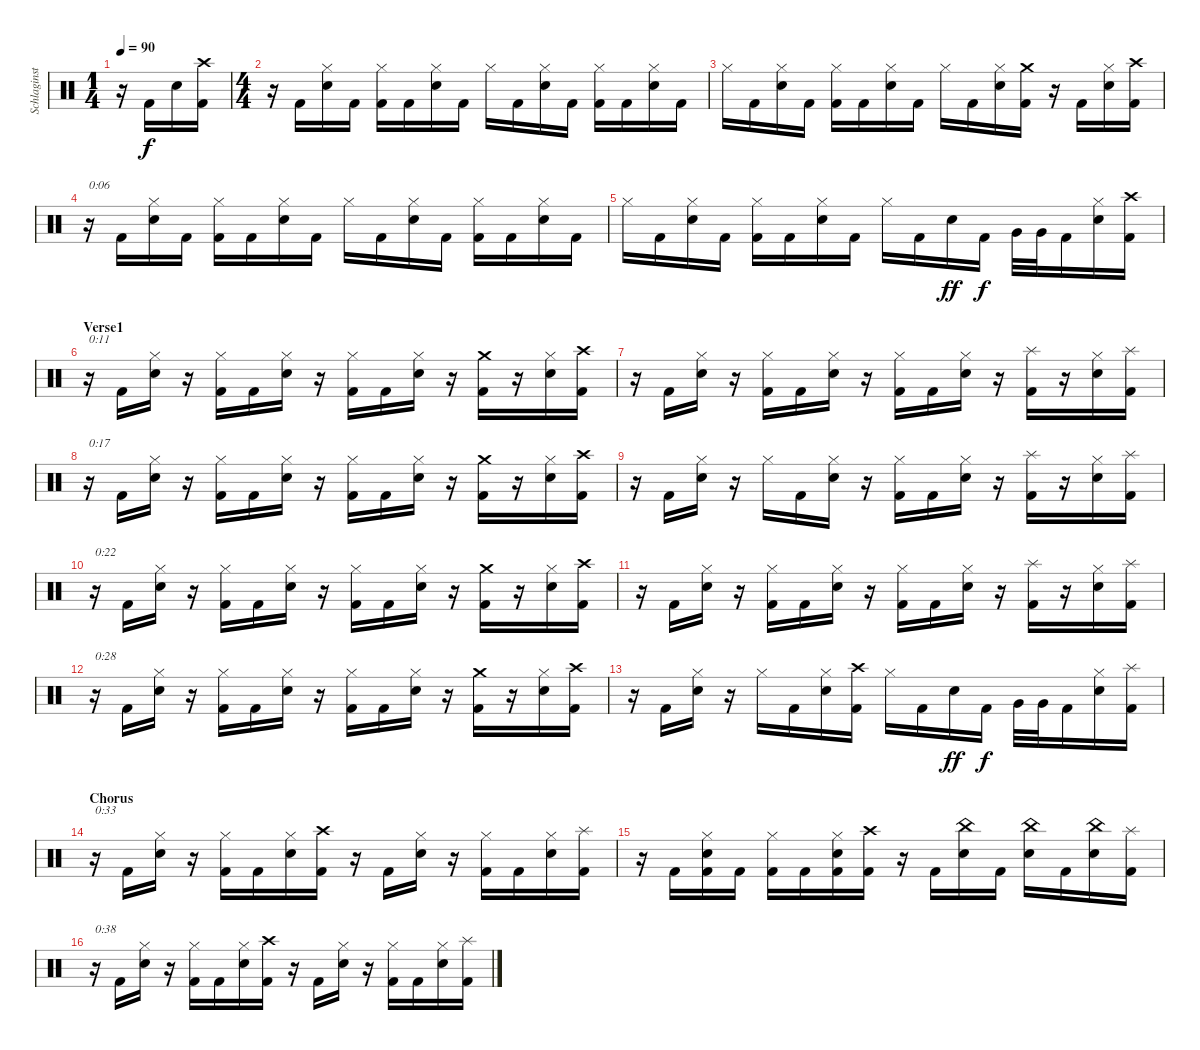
\track ("Schlaginstrumente - Auswahl" "Schlaginst") {instrument percussion}
\staff {score}
\articulation defaults
\ts (1 4)
\tempo 90
\clef neutral
\ks c
r.16{dy f} "Kick (hit) 2".16 "Electric Snare (hit)".16 ("Crash high (hit)" "Kick (hit) 2").16 |
\ts (4 4)
r.16 "Kick (hit) 2".16 ("Hi-Hat (closed)" "Electric Snare (hit)").16 "Kick (hit) 2".16 ("Hi-Hat (closed)" "Kick (hit) 2").16 "Kick (hit) 2".16 ("Hi-Hat (closed)" "Electric Snare (hit)").16 "Kick (hit) 2".16 "Hi-Hat (closed)".16 "Kick (hit) 2".16 ("Hi-Hat (closed)" "Electric Snare (hit)").16 "Kick (hit) 2".16 ("Hi-Hat (closed)" "Kick (hit) 2").16 "Kick (hit) 2".16 ("Hi-Hat (closed)" "Electric Snare (hit)").16 "Kick (hit) 2".16 |
"Hi-Hat (closed)".16 "Kick (hit) 2".16 ("Hi-Hat (closed)" "Electric Snare (hit)").16 "Kick (hit) 2".16 ("Hi-Hat (closed)" "Kick (hit) 2").16 "Kick (hit) 2".16 ("Hi-Hat (closed)" "Electric Snare (hit)").16 "Kick (hit) 2".16 "Hi-Hat (closed)".16 "Kick (hit) 2".16 ("Hi-Hat (closed)" "Electric Snare (hit)").16 ("Crash medium (hit)" "Kick (hit) 2").16 r.16 "Kick (hit) 2".16 ("Hi-Hat (closed)" "Electric Snare (hit)").16 ("Crash high (hit)" "Kick (hit) 2").16 |
r.16{txt "0:06"} "Kick (hit) 2".16 ("Hi-Hat (closed)" "Electric Snare (hit)").16 "Kick (hit) 2".16 ("Hi-Hat (closed)" "Kick (hit) 2").16 "Kick (hit) 2".16 ("Hi-Hat (closed)" "Electric Snare (hit)").16 "Kick (hit) 2".16 "Hi-Hat (closed)".16 "Kick (hit) 2".16 ("Hi-Hat (closed)" "Electric Snare (hit)").16 "Kick (hit) 2".16 ("Hi-Hat (closed)" "Kick (hit) 2").16 "Kick (hit) 2".16 ("Hi-Hat (closed)" "Electric Snare (hit)").16 "Kick (hit) 2".16 |
"Hi-Hat (closed)".16 "Kick (hit) 2".16 ("Hi-Hat (closed)" "Electric Snare (hit)").16 "Kick (hit) 2".16 ("Hi-Hat (closed)" "Kick (hit) 2").16 "Kick (hit) 2".16 ("Hi-Hat (closed)" "Electric Snare (hit)").16 "Kick (hit) 2".16 "Hi-Hat (closed)".16 "Kick (hit) 2".16 "Electric Snare (hit)".16{dy ff} "Kick (hit) 2".16{dy f} "Very Low Tom (hit)".32 "Very Low Tom (hit)".32 "Kick (hit) 2".16 ("Hi-Hat (closed)" "Electric Snare (hit)").16 ("Crash high (hit)" "Kick (hit) 2").16 |
\section ("" "Verse1")
r.16{txt "0:11"} "Kick (hit) 2".16 ("Hi-Hat (closed)" "Electric Snare (hit)").16 r.16 ("Hi-Hat (closed)" "Kick (hit) 2").16 "Kick (hit) 2".16 ("Hi-Hat (closed)" "Electric Snare (hit)").16 r.16 ("Hi-Hat (closed)" "Kick (hit) 2").16 "Kick (hit) 2".16 ("Hi-Hat (closed)" "Electric Snare (hit)").16 r.16 ("Crash medium (hit)" "Kick (hit) 2").16 r.16 ("Hi-Hat (closed)" "Electric Snare (hit)").16 ("Crash high (hit)" "Kick (hit) 2").16 |
r.16 "Kick (hit) 2".16 ("Hi-Hat (closed)" "Electric Snare (hit)").16 r.16 ("Hi-Hat (closed)" "Kick (hit) 2").16 "Kick (hit) 2".16 ("Hi-Hat (closed)" "Electric Snare (hit)").16 r.16 ("Hi-Hat (closed)" "Kick (hit) 2").16 "Kick (hit) 2".16 ("Hi-Hat (closed)" "Electric Snare (hit)").16 r.16 ("Splash (hit)" "Kick (hit) 2").16 r.16 ("Hi-Hat (closed)" "Electric Snare (hit)").16 ("Splash (hit)" "Kick (hit) 2").16 |
r.16{txt "0:17"} "Kick (hit) 2".16 ("Hi-Hat (closed)" "Electric Snare (hit)").16 r.16 ("Hi-Hat (closed)" "Kick (hit) 2").16 "Kick (hit) 2".16 ("Hi-Hat (closed)" "Electric Snare (hit)").16 r.16 ("Hi-Hat (closed)" "Kick (hit) 2").16 "Kick (hit) 2".16 ("Hi-Hat (closed)" "Electric Snare (hit)").16 r.16 ("Crash medium (hit)" "Kick (hit) 2").16 r.16 ("Hi-Hat (closed)" "Electric Snare (hit)").16 ("Crash high (hit)" "Kick (hit) 2").16 |
r.16 "Kick (hit) 2".16 ("Hi-Hat (closed)" "Electric Snare (hit)").16 r.16 "Hi-Hat (closed)".16 "Kick (hit) 2".16 ("Hi-Hat (closed)" "Electric Snare (hit)").16 r.16 ("Hi-Hat (closed)" "Kick (hit) 2").16 "Kick (hit) 2".16 ("Hi-Hat (closed)" "Electric Snare (hit)").16 r.16 ("Splash (hit)" "Kick (hit) 2").16 r.16 ("Hi-Hat (closed)" "Electric Snare (hit)").16 ("Splash (hit)" "Kick (hit) 2").16 |
r.16{txt "0:22"} "Kick (hit) 2".16 ("Hi-Hat (closed)" "Electric Snare (hit)").16 r.16 ("Hi-Hat (closed)" "Kick (hit) 2").16 "Kick (hit) 2".16 ("Hi-Hat (closed)" "Electric Snare (hit)").16 r.16 ("Hi-Hat (closed)" "Kick (hit) 2").16 "Kick (hit) 2".16 ("Hi-Hat (closed)" "Electric Snare (hit)").16 r.16 ("Crash medium (hit)" "Kick (hit) 2").16 r.16 ("Hi-Hat (closed)" "Electric Snare (hit)").16 ("Crash high (hit)" "Kick (hit) 2").16 |
r.16 "Kick (hit) 2".16 ("Hi-Hat (closed)" "Electric Snare (hit)").16 r.16 ("Hi-Hat (closed)" "Kick (hit) 2").16 "Kick (hit) 2".16 ("Hi-Hat (closed)" "Electric Snare (hit)").16 r.16 ("Hi-Hat (closed)" "Kick (hit) 2").16 "Kick (hit) 2".16 ("Hi-Hat (closed)" "Electric Snare (hit)").16 r.16 ("Splash (hit)" "Kick (hit) 2").16 r.16 ("Hi-Hat (closed)" "Electric Snare (hit)").16 ("Splash (hit)" "Kick (hit) 2").16 |
r.16{txt "0:28"} "Kick (hit) 2".16 ("Hi-Hat (closed)" "Electric Snare (hit)").16 r.16 ("Hi-Hat (closed)" "Kick (hit) 2").16 "Kick (hit) 2".16 ("Hi-Hat (closed)" "Electric Snare (hit)").16 r.16 ("Hi-Hat (closed)" "Kick (hit) 2").16 "Kick (hit) 2".16 ("Hi-Hat (closed)" "Electric Snare (hit)").16 r.16 ("Crash medium (hit)" "Kick (hit) 2").16 r.16 ("Hi-Hat (closed)" "Electric Snare (hit)").16 ("Crash high (hit)" "Kick (hit) 2").16 |
r.16 "Kick (hit) 2".16 ("Hi-Hat (closed)" "Electric Snare (hit)").16 r.16 "Hi-Hat (closed)".16 "Kick (hit) 2".16 ("Hi-Hat (closed)" "Electric Snare (hit)").16 ("Crash high (hit)" "Kick (hit) 2").16 "Hi-Hat (closed)".16 "Kick (hit) 2".16 "Electric Snare (hit)".16{dy ff} "Kick (hit) 2".16{dy f} "Very Low Tom (hit)".32 "Very Low Tom (hit)".32 "Kick (hit) 2".16 ("Hi-Hat (closed)" "Electric Snare (hit)").16 ("Splash (hit)" "Kick (hit) 2").16 |
\section ("" "Chorus")
r.16{txt "0:33"} "Kick (hit) 2".16 ("Hi-Hat (closed)" "Electric Snare (hit)").16 r.16 ("Hi-Hat (closed)" "Kick (hit) 2").16 "Kick (hit) 2".16 ("Hi-Hat (closed)" "Electric Snare (hit)").16 ("Crash high (hit)" "Kick (hit) 2").16 r.16 "Kick (hit) 2".16 ("Hi-Hat (closed)" "Electric Snare (hit)").16 r.16 ("Hi-Hat (closed)" "Kick (hit) 2").16 "Kick (hit) 2".16 ("Hi-Hat (closed)" "Electric Snare (hit)").16 ("Splash (hit)" "Kick (hit) 2").16 |
r.16 "Kick (hit) 2".16 ("Hi-Hat (closed)" "Electric Snare (hit)" "Kick (hit) 2").16 "Kick (hit) 2".16 ("Hi-Hat (closed)" "Kick (hit) 2").16 "Kick (hit) 2".16 ("Hi-Hat (closed)" "Electric Snare (hit)" "Kick (hit) 2").16 ("Crash high (hit)" "Kick (hit) 2").16 r.16 "Kick (hit) 2".16 ("China (hit)" "Electric Snare (hit)").16 "Kick (hit) 2".16 ("China (hit)" "Electric Snare (hit)").16 "Kick (hit) 2".16 ("China (hit)" "Electric Snare (hit)").16 ("Splash (hit)" "Kick (hit) 2").16 |
r.16{txt "0:38"} "Kick (hit) 2".16 ("Hi-Hat (closed)" "Electric Snare (hit)").16 r.16 ("Hi-Hat (closed)" "Kick (hit) 2").16 "Kick (hit) 2".16 ("Hi-Hat (closed)" "Electric Snare (hit)").16 ("Crash high (hit)" "Kick (hit) 2").16 r.16 "Kick (hit) 2".16 ("Hi-Hat (closed)" "Electric Snare (hit)").16 r.16 ("Hi-Hat (closed)" "Kick (hit) 2").16 "Kick (hit) 2".16 ("Hi-Hat (closed)" "Electric Snare (hit)").16 ("Splash (hit)" "Kick (hit) 2").16
